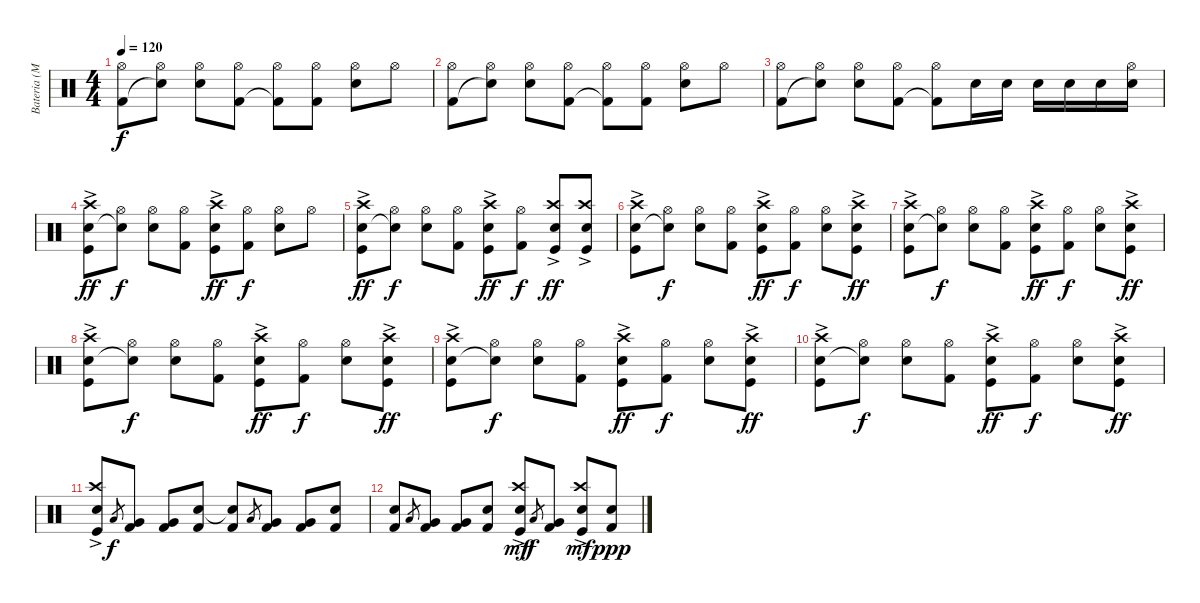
\track ("Bateria (Mauricio Llona)" "Bateria (M") {instrument percussion}
\staff {score}
\articulation defaults
\ts (4 4)
\tempo 120
\clef neutral
\ks c
("Hi-Hat (open)" "Kick (hit) 2").8{dy f} ("Hi-Hat (open)" "Snare (hit)"{t}).8 ("Hi-Hat (open)" "Electric Snare (hit)").8 ("Hi-Hat (open)" "Kick (hit) 2").8 ("Hi-Hat (open)" "Kick (hit) 2"{t}).8 ("Hi-Hat (open)" "Kick (hit) 2").8 ("Hi-Hat (open)" "Electric Snare (hit)").8 "Hi-Hat (open)".8 |
("Hi-Hat (open)" "Kick (hit) 2").8 ("Hi-Hat (open)" "Snare (hit)"{t}).8 ("Hi-Hat (open)" "Electric Snare (hit)").8 ("Hi-Hat (open)" "Kick (hit) 2").8 ("Hi-Hat (open)" "Kick (hit) 2"{t}).8 ("Hi-Hat (open)" "Kick (hit) 2").8 ("Hi-Hat (open)" "Electric Snare (hit)").8 "Hi-Hat (open)".8 |
("Hi-Hat (open)" "Kick (hit) 2").8 ("Hi-Hat (open)" "Snare (hit)"{t}).8 ("Hi-Hat (open)" "Electric Snare (hit)").8 ("Hi-Hat (open)" "Kick (hit) 2").8 ("Hi-Hat (open)" "Kick (hit) 2"{t}).8 "Snare (hit) 2".16 "Snare (hit) 2".16 "Snare (hit) 2".16 "Snare (hit) 2".16 "Snare (hit) 2".16 ("Hi-Hat (open)" "Snare (hit) 2").16 |
("Crash high (hit)" "Snare (hit) 2"{ac} "Kick (hit)").8{dy ff} ("Hi-Hat (open)" "Snare (hit)"{t}).8{dy f} ("Hi-Hat (open)" "Electric Snare (hit)").8 ("Hi-Hat (open)" "Kick (hit) 2").8 ("Crash high (hit)" "Snare (hit) 2"{ac} "Kick (hit)").8{dy ff} ("Hi-Hat (open)" "Kick (hit) 2").8{dy f} ("Hi-Hat (open)" "Electric Snare (hit)").8 "Hi-Hat (open)".8 |
("Crash high (hit)" "Snare (hit) 2"{ac} "Kick (hit)").8{dy ff} ("Hi-Hat (open)" "Snare (hit)"{t}).8{dy f} ("Hi-Hat (open)" "Electric Snare (hit)").8 ("Hi-Hat (open)" "Kick (hit) 2").8 ("Crash high (hit)" "Snare (hit) 2"{ac} "Kick (hit)").8{dy ff} ("Hi-Hat (open)" "Kick (hit) 2").8{dy f} ("Crash high (hit)" "Snare (hit) 2"{ac} "Kick (hit)").8{dy ff} ("Crash high (hit)" "Snare (hit) 2"{ac} "Kick (hit)").8 |
("Crash high (hit)" "Snare (hit) 2"{ac} "Kick (hit)").8 ("Hi-Hat (open)" "Snare (hit)"{t}).8{dy f} ("Hi-Hat (open)" "Electric Snare (hit)").8 ("Hi-Hat (open)" "Kick (hit) 2").8 ("Crash high (hit)" "Snare (hit) 2"{ac} "Kick (hit)").8{dy ff} ("Hi-Hat (open)" "Kick (hit) 2").8{dy f} ("Hi-Hat (open)" "Electric Snare (hit)").8 ("Crash high (hit)" "Snare (hit) 2"{ac} "Kick (hit)").8{dy ff} |
("Crash high (hit)" "Snare (hit) 2"{ac} "Kick (hit)").8 ("Hi-Hat (open)" "Snare (hit)"{t}).8{dy f} ("Hi-Hat (open)" "Electric Snare (hit)").8 ("Hi-Hat (open)" "Kick (hit) 2").8 ("Crash high (hit)" "Snare (hit) 2"{ac} "Kick (hit)").8{dy ff} ("Hi-Hat (open)" "Kick (hit) 2").8{dy f} ("Hi-Hat (open)" "Electric Snare (hit)").8 ("Crash high (hit)" "Snare (hit) 2"{ac} "Kick (hit)").8{dy ff} |
("Crash high (hit)" "Snare (hit) 2"{ac} "Kick (hit)").8 ("Hi-Hat (open)" "Snare (hit)"{t}).8{dy f} ("Hi-Hat (open)" "Electric Snare (hit)").8 ("Hi-Hat (open)" "Kick (hit) 2").8 ("Crash high (hit)" "Snare (hit) 2"{ac} "Kick (hit)").8{dy ff} ("Hi-Hat (open)" "Kick (hit) 2").8{dy f} ("Hi-Hat (open)" "Electric Snare (hit)").8 ("Crash high (hit)" "Snare (hit) 2"{ac} "Kick (hit)").8{dy ff} |
("Crash high (hit)" "Snare (hit) 2"{ac} "Kick (hit)").8 ("Hi-Hat (open)" "Snare (hit)"{t}).8{dy f} ("Hi-Hat (open)" "Electric Snare (hit)").8 ("Hi-Hat (open)" "Kick (hit) 2").8 ("Crash high (hit)" "Snare (hit) 2"{ac} "Kick (hit)").8{dy ff} ("Hi-Hat (open)" "Kick (hit) 2").8{dy f} ("Hi-Hat (open)" "Electric Snare (hit)").8 ("Crash high (hit)" "Snare (hit) 2"{ac} "Kick (hit)").8{dy ff} |
("Crash high (hit)" "Snare (hit) 2"{ac} "Kick (hit)").8 ("Hi-Hat (open)" "Snare (hit)"{t}).8{dy f} ("Hi-Hat (open)" "Electric Snare (hit)").8 ("Hi-Hat (open)" "Kick (hit) 2").8 ("Crash high (hit)" "Snare (hit) 2"{ac} "Kick (hit)").8{dy ff} ("Hi-Hat (open)" "Kick (hit) 2").8{dy f} ("Hi-Hat (open)" "Electric Snare (hit)").8 ("Crash high (hit)" "Snare (hit) 2"{ac} "Kick (hit)").8{dy ff} |
("Crash high (hit)" "Snare (hit) 2"{ac} "Kick (hit)").8 "Low Tom (hit)".8{gr dy f} ("Very Low Tom (hit)" "Kick (hit) 2").8 ("Very Low Tom (hit)" "Kick (hit) 2").8 ("Electric Snare (hit)" "Kick (hit) 2").8 ("Snare (hit)"{t} "Kick (hit) 2").8 "Low Tom (hit)".8{gr} ("Very Low Tom (hit)" "Kick (hit) 2").8 ("Very Low Tom (hit)" "Kick (hit) 2").8 ("Electric Snare (hit)" "Kick (hit) 2").8 |
("Electric Snare (hit)" "Kick (hit) 2").8 "Low Tom (hit)".8{gr} ("Very Low Tom (hit)" "Kick (hit) 2").8 ("Very Low Tom (hit)" "Kick (hit) 2").8 ("Electric Snare (hit)" "Kick (hit) 2").8 ("Crash high (hit)" "Snare (hit) 2"{ac} "Kick (hit)").8{dy mf} "Low Tom (hit)".8{gr dy f} ("Very Low Tom (hit)" "Kick (hit) 2").8 ("Crash high (hit)" "Snare (hit) 2"{ac} "Kick (hit)").8{dy mf} ("Electric Snare (hit)" "Kick (hit) 2").8{dy ppp}
